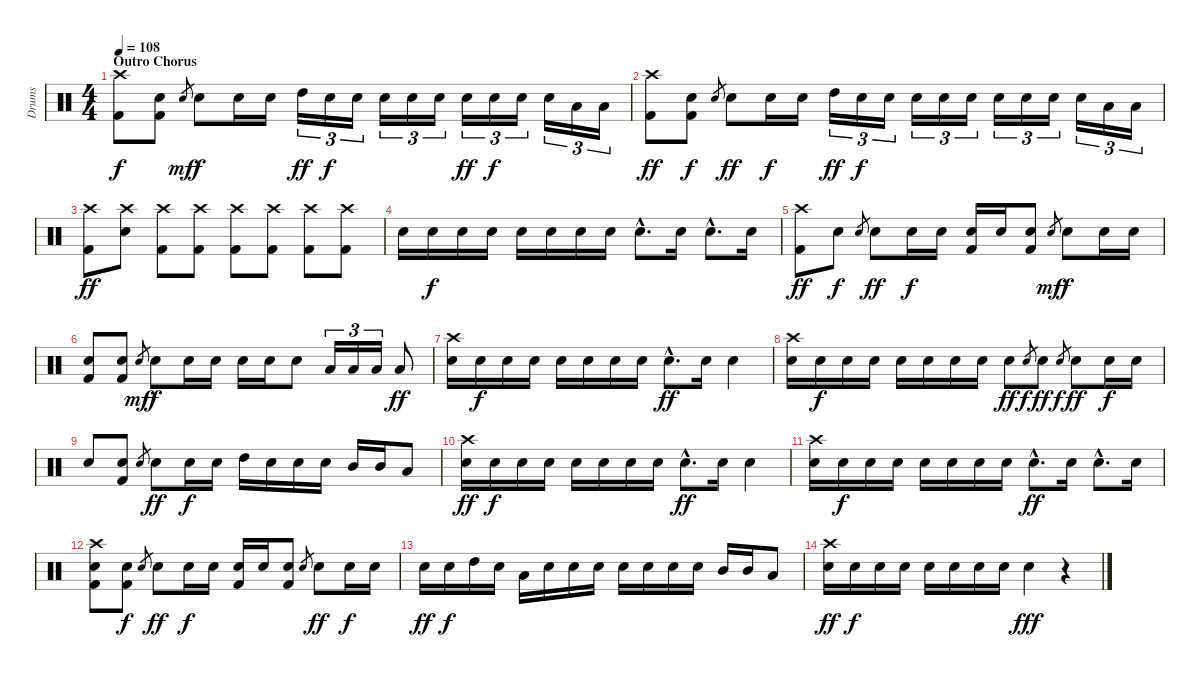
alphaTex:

\track ("Drums" "Drums") {instrument percussion}
\staff {score}
\articulation defaults
\ts (4 4)
\section ("" "Outro Chorus")
\tempo 108
\clef neutral
\ks c
("Crash high (hit)" "Kick (hit) 2").8{dy f} ("Electric Snare (hit)" "Kick (hit) 2").8 "Electric Snare (hit)".8{gr dy mf} "Electric Snare (hit)".8{dy f} "Electric Snare (hit)".16 "Electric Snare (hit)".16 "High Tom (hit)".16{tu (3 2) dy ff} "Electric Snare (hit)".16{tu (3 2) dy f} "Electric Snare (hit)".16{tu (3 2)} "Electric Snare (hit)".16{tu (3 2)} "Electric Snare (hit)".16{tu (3 2)} "Electric Snare (hit)".16{tu (3 2)} "Electric Snare (hit)".16{tu (3 2) dy ff} "Electric Snare (hit)".16{tu (3 2) dy f} "Electric Snare (hit)".16{tu (3 2)} "Electric Snare (hit)".16{tu (3 2)} "Low Tom (hit)".16{tu (3 2)} "Low Tom (hit)".16{tu (3 2)} |
("Crash high (hit)" "Kick (hit) 2").8{dy ff} ("Electric Snare (hit)" "Kick (hit) 2").8{dy f} "Electric Snare (hit)".8{gr} "Electric Snare (hit)".8{dy ff} "Electric Snare (hit)".16{dy f} "Electric Snare (hit)".16 "High Tom (hit)".16{tu (3 2) dy ff} "Electric Snare (hit)".16{tu (3 2) dy f} "Electric Snare (hit)".16{tu (3 2)} "Electric Snare (hit)".16{tu (3 2)} "Electric Snare (hit)".16{tu (3 2)} "Electric Snare (hit)".16{tu (3 2)} "Electric Snare (hit)".16{tu (3 2)} "Electric Snare (hit)".16{tu (3 2)} "Electric Snare (hit)".16{tu (3 2)} "Electric Snare (hit)".16{tu (3 2)} "Low Tom (hit)".16{tu (3 2)} "Low Tom (hit)".16{tu (3 2)} |
("Crash high (hit)" "Kick (hit) 2").8{dy ff} ("Crash high (hit)" "Electric Snare (hit)").8 ("Crash high (hit)" "Kick (hit) 2").8 ("Crash high (hit)" "Kick (hit) 2").8 ("Crash high (hit)" "Kick (hit) 2").8 ("Crash high (hit)" "Kick (hit) 2").8 ("Crash high (hit)" "Kick (hit) 2").8 ("Crash high (hit)" "Kick (hit) 2").8 |
"Electric Snare (hit)".16 "Electric Snare (hit)".16{dy f} "Electric Snare (hit)".16 "Electric Snare (hit)".16 "Electric Snare (hit)".16 "Electric Snare (hit)".16 "Electric Snare (hit)".16 "Electric Snare (hit)".16 "Electric Snare (hit)"{hac}.8{d} "Electric Snare (hit)".16 "Electric Snare (hit)"{hac}.8{d} "Electric Snare (hit)".16 |
("Crash high (hit)" "Kick (hit) 2").8{dy ff} "Electric Snare (hit)".8{dy f} "Electric Snare (hit)".8{gr} "Electric Snare (hit)".8{dy ff} "Electric Snare (hit)".16{dy f} "Electric Snare (hit)".16 ("Electric Snare (hit)" "Kick (hit) 2").16 "Electric Snare (hit)".16 ("Electric Snare (hit)" "Kick (hit) 2").8 "Electric Snare (hit)".8{gr dy mf} "Electric Snare (hit)".8{dy f} "Electric Snare (hit)".16 "Electric Snare (hit)".16 |
("Electric Snare (hit)" "Kick (hit) 2").8 ("Electric Snare (hit)" "Kick (hit) 2").8 "Electric Snare (hit)".8{gr dy mf} "Electric Snare (hit)".8{dy f} "Electric Snare (hit)".16 "Electric Snare (hit)".16 "Electric Snare (hit)".16 "Electric Snare (hit)".16 "Electric Snare (hit)".8 "Low Tom (hit)".16{tu (3 2)} "Low Tom (hit)".16{tu (3 2)} "Low Tom (hit)".16{tu (3 2)} "Low Tom (hit)".8{dy ff} |
("Crash high (hit)" "Electric Snare (hit)").16 "Electric Snare (hit)".16{dy f} "Electric Snare (hit)".16 "Electric Snare (hit)".16 "Electric Snare (hit)".16 "Electric Snare (hit)".16 "Electric Snare (hit)".16 "Electric Snare (hit)".16 "Electric Snare (hit)"{hac}.8{d dy ff} "Electric Snare (hit)".16 "Electric Snare (hit)".4 |
("Crash high (hit)" "Electric Snare (hit)").16 "Electric Snare (hit)".16{dy f} "Electric Snare (hit)".16 "Electric Snare (hit)".16 "Electric Snare (hit)".16 "Electric Snare (hit)".16 "Electric Snare (hit)".16 "Electric Snare (hit)".16 "Electric Snare (hit)".8{dy ff} "Electric Snare (hit)".8{gr dy f} "Electric Snare (hit)".8{dy ff} "Electric Snare (hit)".8{gr dy f} "Electric Snare (hit)".8{dy ff} "Electric Snare (hit)".16{dy f} "Electric Snare (hit)".16 |
"Electric Snare (hit)".8 ("Electric Snare (hit)" "Kick (hit) 2").8 "Electric Snare (hit)".8{gr} "Electric Snare (hit)".8{dy ff} "Electric Snare (hit)".16{dy f} "Electric Snare (hit)".16 "High Tom (hit)".16 "Electric Snare (hit)".16 "Electric Snare (hit)".16 "Electric Snare (hit)".16 "Mid Tom (hit)".16 "Mid Tom (hit)".16 "Low Tom (hit)".8 |
("Crash high (hit)" "Electric Snare (hit)").16{dy ff} "Electric Snare (hit)".16{dy f} "Electric Snare (hit)".16 "Electric Snare (hit)".16 "Electric Snare (hit)".16 "Electric Snare (hit)".16 "Electric Snare (hit)".16 "Electric Snare (hit)".16 "Electric Snare (hit)"{hac}.8{d dy ff} "Electric Snare (hit)".16 "Electric Snare (hit)".4 |
("Crash high (hit)" "Electric Snare (hit)").16 "Electric Snare (hit)".16{dy f} "Electric Snare (hit)".16 "Electric Snare (hit)".16 "Electric Snare (hit)".16 "Electric Snare (hit)".16 "Electric Snare (hit)".16 "Electric Snare (hit)".16 "Electric Snare (hit)"{hac}.8{d dy ff} "Electric Snare (hit)".16 "Electric Snare (hit)"{hac}.8{d} "Electric Snare (hit)".16 |
("Crash high (hit)" "Electric Snare (hit)" "Kick (hit) 2").8 ("Electric Snare (hit)" "Kick (hit) 2").8{dy f} "Electric Snare (hit)".8{gr} "Electric Snare (hit)".8{dy ff} "Electric Snare (hit)".16{dy f} "Electric Snare (hit)".16 ("Electric Snare (hit)" "Kick (hit) 2").16 "Electric Snare (hit)".16 ("Electric Snare (hit)" "Kick (hit) 2").8 "Electric Snare (hit)".8{gr} "Electric Snare (hit)".8{dy ff} "Electric Snare (hit)".16{dy f} "Electric Snare (hit)".16 |
"Electric Snare (hit)".16{dy ff} "Electric Snare (hit)".16{dy f} "High Tom (hit)".16 "Electric Snare (hit)".16 "Low Tom (hit)".16 "Electric Snare (hit)".16 "Electric Snare (hit)".16 "Electric Snare (hit)".16 "Electric Snare (hit)".16 "Electric Snare (hit)".16 "Electric Snare (hit)".16 "Electric Snare (hit)".16 "Mid Tom (hit)".16 "Mid Tom (hit)".16 "Low Tom (hit)".8 |
("Crash high (hit)" "Electric Snare (hit)").16{dy ff} "Electric Snare (hit)".16{dy f} "Electric Snare (hit)".16 "Electric Snare (hit)".16 "Electric Snare (hit)".16 "Electric Snare (hit)".16 "Electric Snare (hit)".16 "Electric Snare (hit)".16 "Electric Snare (hit)".4{dy fff} r.4
